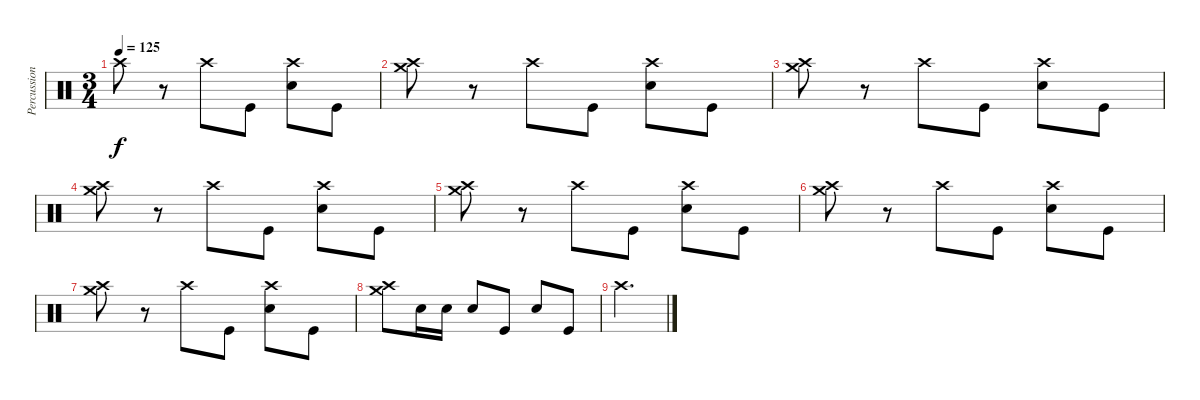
\track ("Percussion" "Percussion") {instrument percussion}
\staff {score}
\articulation defaults
\ts (3 4)
\tempo 125
\clef neutral
\ks c "Crash high (hit)".8{dy f}
r.8 "Crash high (hit)".8 "Kick (hit)".8 ("Crash high (hit)" "Electric Snare (hit)").8 "Kick (hit)".8 |
("Crash high (hit)" "Crash medium (hit)").8 r.8 "Crash high (hit)".8 "Kick (hit)".8 ("Crash high (hit)" "Electric Snare (hit)").8 "Kick (hit)".8 |
("Crash high (hit)" "Crash medium (hit)").8 r.8 "Crash high (hit)".8 "Kick (hit)".8 ("Crash high (hit)" "Electric Snare (hit)").8 "Kick (hit)".8 |
("Crash high (hit)" "Crash medium (hit)").8 r.8 "Crash high (hit)".8 "Kick (hit)".8 ("Crash high (hit)" "Electric Snare (hit)").8 "Kick (hit)".8 |
("Crash high (hit)" "Crash medium (hit)").8 r.8 "Crash high (hit)".8 "Kick (hit)".8 ("Crash high (hit)" "Electric Snare (hit)").8 "Kick (hit)".8 |
("Crash high (hit)" "Crash medium (hit)").8 r.8 "Crash high (hit)".8 "Kick (hit)".8 ("Crash high (hit)" "Electric Snare (hit)").8 "Kick (hit)".8 |
("Crash high (hit)" "Crash medium (hit)").8 r.8 "Crash high (hit)".8 "Kick (hit)".8 ("Crash high (hit)" "Electric Snare (hit)").8 "Kick (hit)".8 |
("Crash high (hit)" "Crash medium (hit)").8 "Electric Snare (hit)".16 "Electric Snare (hit)".16 "Electric Snare (hit)".8 "Kick (hit)".8 "Electric Snare (hit)".8 "Kick (hit)".8 |
"Crash high (hit)".2{d}
